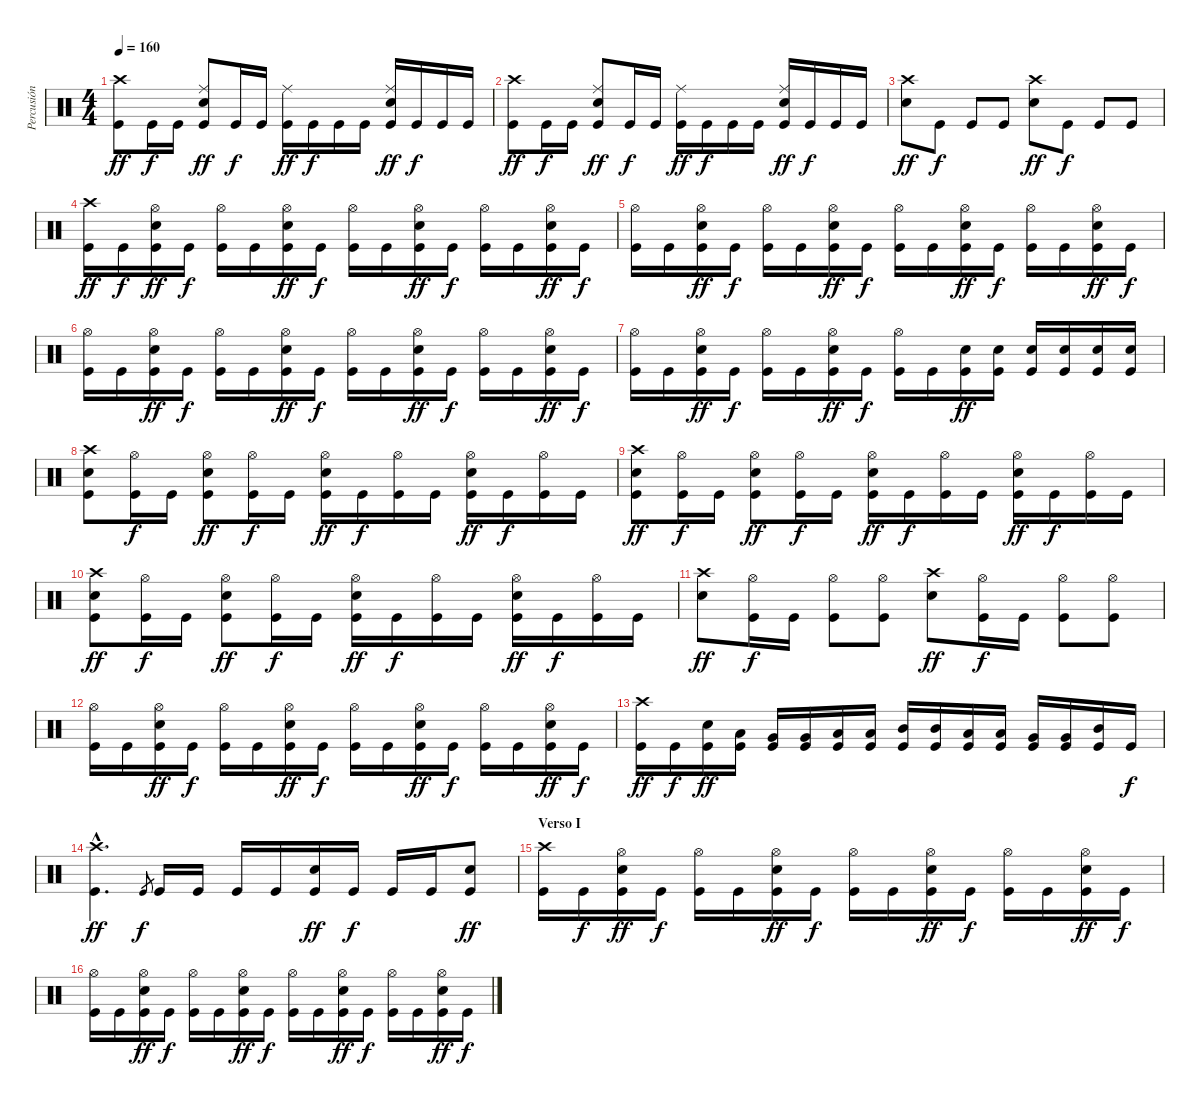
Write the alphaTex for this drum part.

\track ("Percusión" "Percusión") {instrument percussion}
\staff {score}
\articulation defaults
\ts (4 4)
\tempo 160
\clef neutral
\ks c
("Kick (hit)" "Crash high (hit)").8{dy ff} "Kick (hit)".16{dy f} "Kick (hit)".16 ("Kick (hit)" "Ride (middle)" "Electric Snare (hit)").8{dy ff} "Kick (hit)".16{dy f} "Kick (hit)".16 ("Kick (hit)" "Ride (middle)").16{dy ff} "Kick (hit)".16{dy f} "Kick (hit)".16 "Kick (hit)".16 ("Kick (hit)" "Ride (middle)" "Electric Snare (hit)").16{dy ff} "Kick (hit)".16{dy f} "Kick (hit)".16 "Kick (hit)".16 |
("Kick (hit)" "Crash high (hit)").8{dy ff} "Kick (hit)".16{dy f} "Kick (hit)".16 ("Kick (hit)" "Ride (middle)" "Electric Snare (hit)").8{dy ff} "Kick (hit)".16{dy f} "Kick (hit)".16 ("Kick (hit)" "Ride (middle)").16{dy ff} "Kick (hit)".16{dy f} "Kick (hit)".16 "Kick (hit)".16 ("Kick (hit)" "Ride (middle)" "Electric Snare (hit)").16{dy ff} "Kick (hit)".16{dy f} "Kick (hit)".16 "Kick (hit)".16 |
("Electric Snare (hit)" "Crash high (hit)").8{dy ff} "Kick (hit)".8{dy f} "Kick (hit)".8 "Kick (hit)".8 ("Electric Snare (hit)" "Crash high (hit)").8{dy ff} "Kick (hit)".8{dy f} "Kick (hit)".8 "Kick (hit)".8 |
("Kick (hit)" "Crash high (hit)").16{dy ff} "Kick (hit)".16{dy f} ("Kick (hit)" "Electric Snare (hit)" "Hi-Hat (open)").16{dy ff} "Kick (hit)".16{dy f} ("Kick (hit)" "Hi-Hat (open)").16 "Kick (hit)".16 ("Kick (hit)" "Electric Snare (hit)" "Hi-Hat (open)").16{dy ff} "Kick (hit)".16{dy f} ("Kick (hit)" "Hi-Hat (open)").16 "Kick (hit)".16 ("Kick (hit)" "Electric Snare (hit)" "Hi-Hat (open)").16{dy ff} "Kick (hit)".16{dy f} ("Kick (hit)" "Hi-Hat (open)").16 "Kick (hit)".16 ("Kick (hit)" "Electric Snare (hit)" "Hi-Hat (open)").16{dy ff} "Kick (hit)".16{dy f} |
("Kick (hit)" "Hi-Hat (open)").16 "Kick (hit)".16 ("Kick (hit)" "Electric Snare (hit)" "Hi-Hat (open)").16{dy ff} "Kick (hit)".16{dy f} ("Kick (hit)" "Hi-Hat (open)").16 "Kick (hit)".16 ("Kick (hit)" "Electric Snare (hit)" "Hi-Hat (open)").16{dy ff} "Kick (hit)".16{dy f} ("Kick (hit)" "Hi-Hat (open)").16 "Kick (hit)".16 ("Kick (hit)" "Electric Snare (hit)" "Hi-Hat (open)").16{dy ff} "Kick (hit)".16{dy f} ("Kick (hit)" "Hi-Hat (open)").16 "Kick (hit)".16 ("Kick (hit)" "Electric Snare (hit)" "Hi-Hat (open)").16{dy ff} "Kick (hit)".16{dy f} |
("Kick (hit)" "Hi-Hat (open)").16 "Kick (hit)".16 ("Kick (hit)" "Electric Snare (hit)" "Hi-Hat (open)").16{dy ff} "Kick (hit)".16{dy f} ("Kick (hit)" "Hi-Hat (open)").16 "Kick (hit)".16 ("Kick (hit)" "Electric Snare (hit)" "Hi-Hat (open)").16{dy ff} "Kick (hit)".16{dy f} ("Kick (hit)" "Hi-Hat (open)").16 "Kick (hit)".16 ("Kick (hit)" "Electric Snare (hit)" "Hi-Hat (open)").16{dy ff} "Kick (hit)".16{dy f} ("Kick (hit)" "Hi-Hat (open)").16 "Kick (hit)".16 ("Kick (hit)" "Electric Snare (hit)" "Hi-Hat (open)").16{dy ff} "Kick (hit)".16{dy f} |
("Kick (hit)" "Hi-Hat (open)").16 "Kick (hit)".16 ("Kick (hit)" "Electric Snare (hit)" "Hi-Hat (open)").16{dy ff} "Kick (hit)".16{dy f} ("Kick (hit)" "Hi-Hat (open)").16 "Kick (hit)".16 ("Kick (hit)" "Electric Snare (hit)" "Hi-Hat (open)").16{dy ff} "Kick (hit)".16{dy f} ("Kick (hit)" "Hi-Hat (open)").16 "Kick (hit)".16 ("Kick (hit)" "Electric Snare (hit)").16{dy ff} ("Kick (hit)" "Electric Snare (hit)").16 ("Kick (hit)" "Electric Snare (hit)").16 ("Kick (hit)" "Electric Snare (hit)").16 ("Kick (hit)" "Electric Snare (hit)").16 ("Kick (hit)" "Electric Snare (hit)").16 |
("Kick (hit)" "Electric Snare (hit)" "Crash high (hit)").8 ("Kick (hit)" "Hi-Hat (open)").16{dy f} "Kick (hit)".16 ("Kick (hit)" "Electric Snare (hit)" "Hi-Hat (open)").8{dy ff} ("Kick (hit)" "Hi-Hat (open)").16{dy f} "Kick (hit)".16 ("Kick (hit)" "Electric Snare (hit)" "Hi-Hat (open)").16{dy ff} "Kick (hit)".16{dy f} ("Kick (hit)" "Hi-Hat (open)").16 "Kick (hit)".16 ("Kick (hit)" "Electric Snare (hit)" "Hi-Hat (open)").16{dy ff} "Kick (hit)".16{dy f} ("Kick (hit)" "Hi-Hat (open)").16 "Kick (hit)".16 |
("Kick (hit)" "Electric Snare (hit)" "Crash high (hit)").8{dy ff} ("Kick (hit)" "Hi-Hat (open)").16{dy f} "Kick (hit)".16 ("Kick (hit)" "Electric Snare (hit)" "Hi-Hat (open)").8{dy ff} ("Kick (hit)" "Hi-Hat (open)").16{dy f} "Kick (hit)".16 ("Kick (hit)" "Electric Snare (hit)" "Hi-Hat (open)").16{dy ff} "Kick (hit)".16{dy f} ("Kick (hit)" "Hi-Hat (open)").16 "Kick (hit)".16 ("Kick (hit)" "Electric Snare (hit)" "Hi-Hat (open)").16{dy ff} "Kick (hit)".16{dy f} ("Kick (hit)" "Hi-Hat (open)").16 "Kick (hit)".16 |
("Kick (hit)" "Electric Snare (hit)" "Crash high (hit)").8{dy ff} ("Kick (hit)" "Hi-Hat (open)").16{dy f} "Kick (hit)".16 ("Kick (hit)" "Electric Snare (hit)" "Hi-Hat (open)").8{dy ff} ("Kick (hit)" "Hi-Hat (open)").16{dy f} "Kick (hit)".16 ("Kick (hit)" "Electric Snare (hit)" "Hi-Hat (open)").16{dy ff} "Kick (hit)".16{dy f} ("Kick (hit)" "Hi-Hat (open)").16 "Kick (hit)".16 ("Kick (hit)" "Electric Snare (hit)" "Hi-Hat (open)").16{dy ff} "Kick (hit)".16{dy f} ("Kick (hit)" "Hi-Hat (open)").16 "Kick (hit)".16 |
("Electric Snare (hit)" "Crash high (hit)").8{dy ff} ("Kick (hit)" "Hi-Hat (open)").16{dy f} "Kick (hit)".16 ("Kick (hit)" "Hi-Hat (open)").8 ("Kick (hit)" "Hi-Hat (open)").8 ("Electric Snare (hit)" "Crash high (hit)").8{dy ff} ("Kick (hit)" "Hi-Hat (open)").16{dy f} "Kick (hit)".16 ("Kick (hit)" "Hi-Hat (open)").8 ("Kick (hit)" "Hi-Hat (open)").8 |
("Kick (hit)" "Hi-Hat (open)").16 "Kick (hit)".16 ("Kick (hit)" "Electric Snare (hit)" "Hi-Hat (open)").16{dy ff} "Kick (hit)".16{dy f} ("Kick (hit)" "Hi-Hat (open)").16 "Kick (hit)".16 ("Kick (hit)" "Electric Snare (hit)" "Hi-Hat (open)").16{dy ff} "Kick (hit)".16{dy f} ("Kick (hit)" "Hi-Hat (open)").16 "Kick (hit)".16 ("Kick (hit)" "Electric Snare (hit)" "Hi-Hat (open)").16{dy ff} "Kick (hit)".16{dy f} ("Kick (hit)" "Hi-Hat (open)").16 "Kick (hit)".16 ("Kick (hit)" "Electric Snare (hit)" "Hi-Hat (open)").16{dy ff} "Kick (hit)".16{dy f} |
("Kick (hit)" "Crash high (hit)").16{dy ff} "Kick (hit)".16{dy f} ("Kick (hit)" "Electric Snare (hit)").16{dy ff} ("Kick (hit)" "Low Tom (hit)").16 ("Kick (hit)" "Very Low Tom (hit)").16 ("Kick (hit)" "Very Low Tom (hit)").16 ("Kick (hit)" "Low Floor Tom (hit)").16 ("Kick (hit)" "Low Floor Tom (hit)").16 ("Kick (hit)" "Mid Tom (hit)").16 ("Kick (hit)" "Mid Tom (hit)").16 ("Kick (hit)" "Low Tom (hit)").16 ("Kick (hit)" "Low Tom (hit)").16 ("Kick (hit)" "Very Low Tom (hit)").16 ("Kick (hit)" "Very Low Tom (hit)").16 ("Kick (hit)" "Mid Tom (hit)").16 "Kick (hit)".16{dy f} |
("Kick (hit)"{hac} "Crash high (hit)"{hac}).4{d dy ff} "Kick (hit)".8{gr dy f} "Kick (hit)".16 "Kick (hit)".16 "Kick (hit)".16 "Kick (hit)".16 ("Kick (hit)" "Electric Snare (hit)").16{dy ff} "Kick (hit)".16{dy f} "Kick (hit)".16 "Kick (hit)".16 ("Kick (hit)" "Electric Snare (hit)").8{dy ff} |
\section ("" "Verso I")
("Kick (hit)" "Crash high (hit)").16 "Kick (hit)".16{dy f} ("Kick (hit)" "Electric Snare (hit)" "Hi-Hat (open)").16{dy ff} "Kick (hit)".16{dy f} ("Kick (hit)" "Hi-Hat (open)").16 "Kick (hit)".16 ("Kick (hit)" "Electric Snare (hit)" "Hi-Hat (open)").16{dy ff} "Kick (hit)".16{dy f} ("Kick (hit)" "Hi-Hat (open)").16 "Kick (hit)".16 ("Kick (hit)" "Electric Snare (hit)" "Hi-Hat (open)").16{dy ff} "Kick (hit)".16{dy f} ("Kick (hit)" "Hi-Hat (open)").16 "Kick (hit)".16 ("Kick (hit)" "Electric Snare (hit)" "Hi-Hat (open)").16{dy ff} "Kick (hit)".16{dy f} |
("Kick (hit)" "Hi-Hat (open)").16 "Kick (hit)".16 ("Kick (hit)" "Electric Snare (hit)" "Hi-Hat (open)").16{dy ff} "Kick (hit)".16{dy f} ("Kick (hit)" "Hi-Hat (open)").16 "Kick (hit)".16 ("Kick (hit)" "Electric Snare (hit)" "Hi-Hat (open)").16{dy ff} "Kick (hit)".16{dy f} ("Kick (hit)" "Hi-Hat (open)").16 "Kick (hit)".16 ("Kick (hit)" "Electric Snare (hit)" "Hi-Hat (open)").16{dy ff} "Kick (hit)".16{dy f} ("Kick (hit)" "Hi-Hat (open)").16 "Kick (hit)".16 ("Kick (hit)" "Electric Snare (hit)" "Hi-Hat (open)").16{dy ff} "Kick (hit)".16{dy f}
